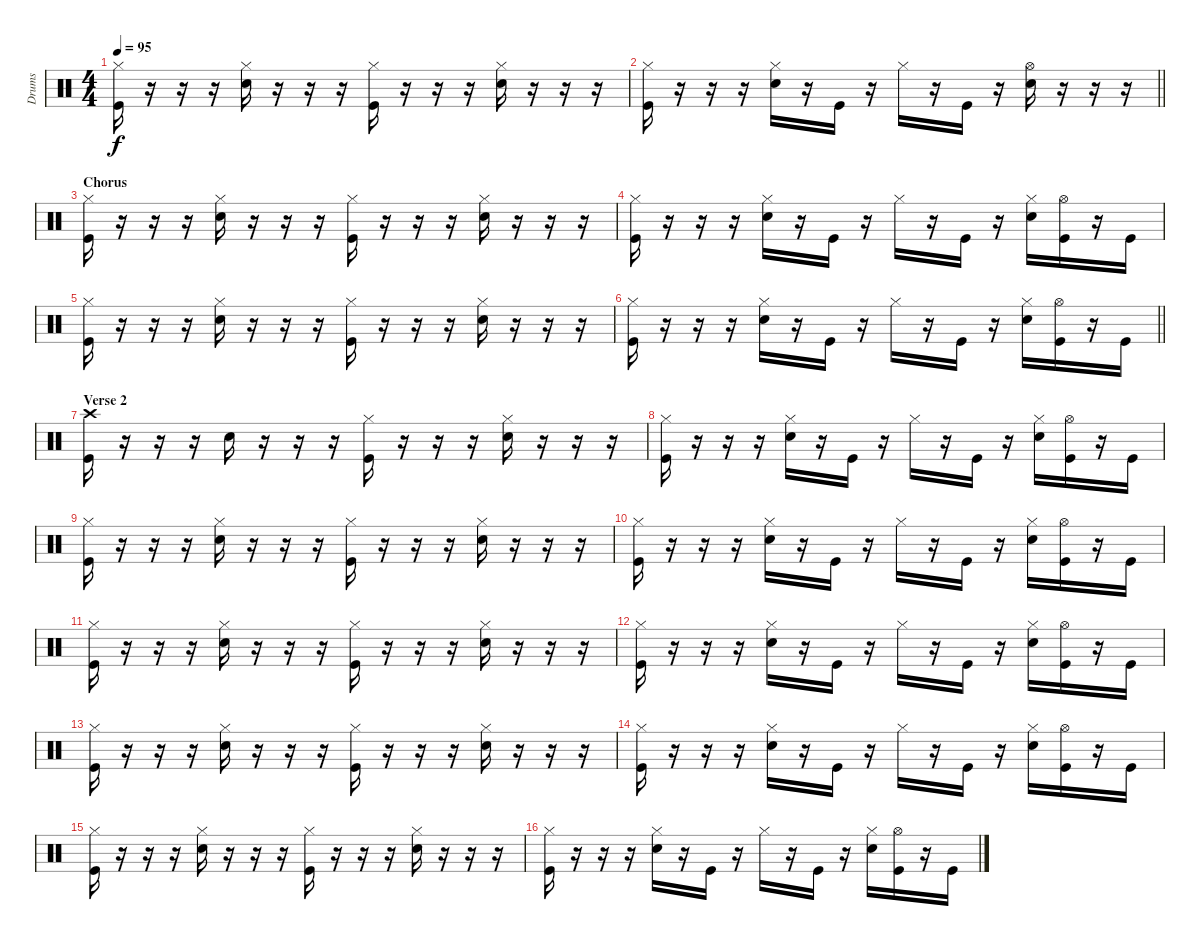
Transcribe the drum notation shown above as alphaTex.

\track ("Drums" "Drums") {instrument percussion bank 177}
\staff {score}
\articulation defaults
\ts (4 4)
\tempo 95
\clef neutral
\ks c
("Hi-Hat (closed)" "Kick (hit)").16{dy f} r.16 r.16 r.16 ("Hi-Hat (closed)" "Snare (hit) 2").16 r.16 r.16 r.16 ("Hi-Hat (closed)" "Kick (hit)").16 r.16 r.16 r.16 ("Hi-Hat (closed)" "Snare (hit) 2").16 r.16 r.16 r.16 |
\barLineRight lightlight
("Hi-Hat (closed)" "Kick (hit)").16 r.16 r.16 r.16 ("Hi-Hat (closed)" "Snare (hit) 2").16 r.16 "Kick (hit)".16 r.16 "Hi-Hat (closed)".16 r.16 "Kick (hit)".16 r.16 ("Hi-Hat (open)" "Snare (hit) 2").16 r.16 r.16 r.16 |
\section ("" "Chorus")
("Hi-Hat (closed)" "Kick (hit)").16 r.16 r.16 r.16 ("Hi-Hat (closed)" "Snare (hit) 2").16 r.16 r.16 r.16 ("Hi-Hat (closed)" "Kick (hit)").16 r.16 r.16 r.16 ("Hi-Hat (closed)" "Snare (hit) 2").16 r.16 r.16 r.16 |
("Hi-Hat (closed)" "Kick (hit)").16 r.16 r.16 r.16 ("Hi-Hat (closed)" "Snare (hit) 2").16 r.16 "Kick (hit)".16 r.16 "Hi-Hat (closed)".16 r.16 "Kick (hit)".16 r.16 ("Hi-Hat (closed)" "Snare (hit) 2").16 ("Hi-Hat (open)" "Kick (hit)").16 r.16 "Kick (hit)".16 |
("Hi-Hat (closed)" "Kick (hit)").16 r.16 r.16 r.16 ("Hi-Hat (closed)" "Snare (hit) 2").16 r.16 r.16 r.16 ("Hi-Hat (closed)" "Kick (hit)").16 r.16 r.16 r.16 ("Hi-Hat (closed)" "Snare (hit) 2").16 r.16 r.16 r.16 |
\barLineRight lightlight
("Hi-Hat (closed)" "Kick (hit)").16 r.16 r.16 r.16 ("Hi-Hat (closed)" "Snare (hit) 2").16 r.16 "Kick (hit)".16 r.16 "Hi-Hat (closed)".16 r.16 "Kick (hit)".16 r.16 ("Hi-Hat (closed)" "Snare (hit) 2").16 ("Hi-Hat (open)" "Kick (hit)").16 r.16 "Kick (hit)".16 |
\section ("" "Verse 2")
("Crash high (hit)" "Kick (hit)").16 r.16 r.16 r.16 "Snare (hit) 2".16 r.16 r.16 r.16 ("Hi-Hat (closed)" "Kick (hit)").16 r.16 r.16 r.16 ("Hi-Hat (closed)" "Snare (hit) 2").16 r.16 r.16 r.16 |
("Hi-Hat (closed)" "Kick (hit)").16 r.16 r.16 r.16 ("Hi-Hat (closed)" "Snare (hit) 2").16 r.16 "Kick (hit)".16 r.16 "Hi-Hat (closed)".16 r.16 "Kick (hit)".16 r.16 ("Hi-Hat (closed)" "Snare (hit) 2").16 ("Hi-Hat (open)" "Kick (hit)").16 r.16 "Kick (hit)".16 |
("Hi-Hat (closed)" "Kick (hit)").16 r.16 r.16 r.16 ("Hi-Hat (closed)" "Snare (hit) 2").16 r.16 r.16 r.16 ("Hi-Hat (closed)" "Kick (hit)").16 r.16 r.16 r.16 ("Hi-Hat (closed)" "Snare (hit) 2").16 r.16 r.16 r.16 |
("Hi-Hat (closed)" "Kick (hit)").16 r.16 r.16 r.16 ("Hi-Hat (closed)" "Snare (hit) 2").16 r.16 "Kick (hit)".16 r.16 "Hi-Hat (closed)".16 r.16 "Kick (hit)".16 r.16 ("Hi-Hat (closed)" "Snare (hit) 2").16 ("Hi-Hat (open)" "Kick (hit)").16 r.16 "Kick (hit)".16 |
("Hi-Hat (closed)" "Kick (hit)").16 r.16 r.16 r.16 ("Hi-Hat (closed)" "Snare (hit) 2").16 r.16 r.16 r.16 ("Hi-Hat (closed)" "Kick (hit)").16 r.16 r.16 r.16 ("Hi-Hat (closed)" "Snare (hit) 2").16 r.16 r.16 r.16 |
("Hi-Hat (closed)" "Kick (hit)").16 r.16 r.16 r.16 ("Hi-Hat (closed)" "Snare (hit) 2").16 r.16 "Kick (hit)".16 r.16 "Hi-Hat (closed)".16 r.16 "Kick (hit)".16 r.16 ("Hi-Hat (closed)" "Snare (hit) 2").16 ("Hi-Hat (open)" "Kick (hit)").16 r.16 "Kick (hit)".16 |
("Hi-Hat (closed)" "Kick (hit)").16 r.16 r.16 r.16 ("Hi-Hat (closed)" "Snare (hit) 2").16 r.16 r.16 r.16 ("Hi-Hat (closed)" "Kick (hit)").16 r.16 r.16 r.16 ("Hi-Hat (closed)" "Snare (hit) 2").16 r.16 r.16 r.16 |
("Hi-Hat (closed)" "Kick (hit)").16 r.16 r.16 r.16 ("Hi-Hat (closed)" "Snare (hit) 2").16 r.16 "Kick (hit)".16 r.16 "Hi-Hat (closed)".16 r.16 "Kick (hit)".16 r.16 ("Hi-Hat (closed)" "Snare (hit) 2").16 ("Hi-Hat (open)" "Kick (hit)").16 r.16 "Kick (hit)".16 |
("Hi-Hat (closed)" "Kick (hit)").16 r.16 r.16 r.16 ("Hi-Hat (closed)" "Snare (hit) 2").16 r.16 r.16 r.16 ("Hi-Hat (closed)" "Kick (hit)").16 r.16 r.16 r.16 ("Hi-Hat (closed)" "Snare (hit) 2").16 r.16 r.16 r.16 |
("Hi-Hat (closed)" "Kick (hit)").16 r.16 r.16 r.16 ("Hi-Hat (closed)" "Snare (hit) 2").16 r.16 "Kick (hit)".16 r.16 "Hi-Hat (closed)".16 r.16 "Kick (hit)".16 r.16 ("Hi-Hat (closed)" "Snare (hit) 2").16 ("Hi-Hat (open)" "Kick (hit)").16 r.16 "Kick (hit)".16
